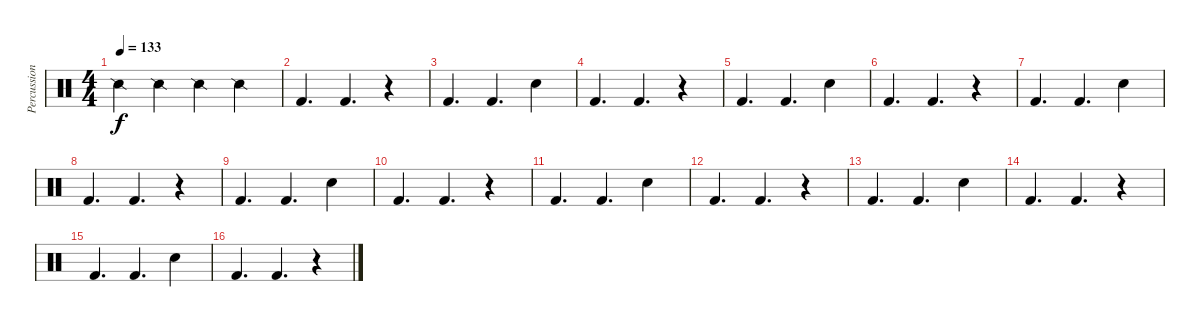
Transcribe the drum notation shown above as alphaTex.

\track ("Percussions" "Percussion") {instrument percussion}
\staff {score}
\articulation defaults
\ts (4 4)
\tempo 133
\clef neutral
\ks c "Snare (side stick) 2".4{dy f} "Snare (side stick) 2".4 "Snare (side stick) 2".4 "Snare (side stick) 2".4
|
"Kick (hit) 2".4{d} "Kick (hit) 2".4{d} r.4 |
"Kick (hit) 2".4{d} "Kick (hit) 2".4{d} "Electric Snare (hit)".4 |
"Kick (hit) 2".4{d} "Kick (hit) 2".4{d} r.4 |
"Kick (hit) 2".4{d} "Kick (hit) 2".4{d} "Electric Snare (hit)".4 |
"Kick (hit) 2".4{d} "Kick (hit) 2".4{d} r.4 |
"Kick (hit) 2".4{d} "Kick (hit) 2".4{d} "Electric Snare (hit)".4 |
"Kick (hit) 2".4{d} "Kick (hit) 2".4{d} r.4 |
"Kick (hit) 2".4{d} "Kick (hit) 2".4{d} "Electric Snare (hit)".4 |
"Kick (hit) 2".4{d} "Kick (hit) 2".4{d} r.4 |
"Kick (hit) 2".4{d} "Kick (hit) 2".4{d} "Electric Snare (hit)".4 |
"Kick (hit) 2".4{d} "Kick (hit) 2".4{d} r.4 |
"Kick (hit) 2".4{d} "Kick (hit) 2".4{d} "Electric Snare (hit)".4 |
"Kick (hit) 2".4{d} "Kick (hit) 2".4{d} r.4 |
"Kick (hit) 2".4{d} "Kick (hit) 2".4{d} "Electric Snare (hit)".4 |
"Kick (hit) 2".4{d} "Kick (hit) 2".4{d} r.4
